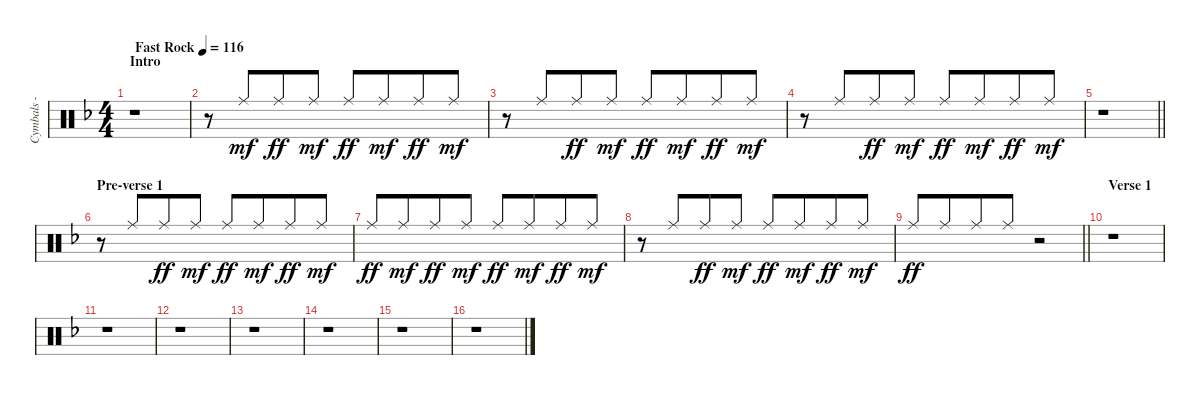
\track ("Cymbals - ride" "Cymbals - ") {instrument percussion}
\staff {score}
\articulation defaults
\ts (4 4)
\section ("" "Intro")
\tempo (116 "Fast Rock")
\clef neutral
\ks dminor
r.1{dy mf volume 4 balance 5} |
\ks f
r.8 "Ride (middle)".8{beam Up beam merge} "Ride (middle)".8{dy ff beam Up} "Ride (middle)".8{dy mf beam Up} "Ride (middle)".8{dy ff beam Up} "Ride (middle)".8{dy mf beam Up beam merge} "Ride (middle)".8{dy ff beam Up} "Ride (middle)".8{dy mf beam Up} |
r.8 "Ride (middle)".8{beam Up beam merge} "Ride (middle)".8{dy ff beam Up} "Ride (middle)".8{dy mf beam Up} "Ride (middle)".8{dy ff beam Up} "Ride (middle)".8{dy mf beam Up beam merge} "Ride (middle)".8{dy ff beam Up} "Ride (middle)".8{dy mf beam Up} |
r.8 "Ride (middle)".8{beam Up beam merge} "Ride (middle)".8{dy ff beam Up} "Ride (middle)".8{dy mf beam Up} "Ride (middle)".8{dy ff beam Up} "Ride (middle)".8{dy mf beam Up beam merge} "Ride (middle)".8{dy ff beam Up} "Ride (middle)".8{dy mf beam Up} |
\barLineRight lightlight
r.1 |
\section ("" "Pre-verse 1")
r.8 "Ride (middle)".8{beam Up beam merge} "Ride (middle)".8{dy ff beam Up} "Ride (middle)".8{dy mf beam Up} "Ride (middle)".8{dy ff beam Up} "Ride (middle)".8{dy mf beam Up beam merge} "Ride (middle)".8{dy ff beam Up} "Ride (middle)".8{dy mf beam Up} |
"Ride (middle)".8{dy ff beam Up} "Ride (middle)".8{dy mf beam Up beam merge} "Ride (middle)".8{dy ff beam Up} "Ride (middle)".8{dy mf beam Up} "Ride (middle)".8{dy ff beam Up} "Ride (middle)".8{dy mf beam Up beam merge} "Ride (middle)".8{dy ff beam Up} "Ride (middle)".8{dy mf beam Up} |
r.8 "Ride (middle)".8{beam Up beam merge} "Ride (middle)".8{dy ff beam Up} "Ride (middle)".8{dy mf beam Up} "Ride (middle)".8{dy ff beam Up} "Ride (middle)".8{dy mf beam Up beam merge} "Ride (middle)".8{dy ff beam Up} "Ride (middle)".8{dy mf beam Up} |
\barLineRight lightlight "Ride (middle)".8{dy ff beam Up} "Ride (middle)".8{beam Up beam merge} "Ride (middle)".8{beam Up} "Ride (middle)".8{beam Up}
r.2 |
\section ("" "Verse 1")
r.1 |
r.1 |
r.1 |
r.1 |
r.1 |
r.1 |
r.1
